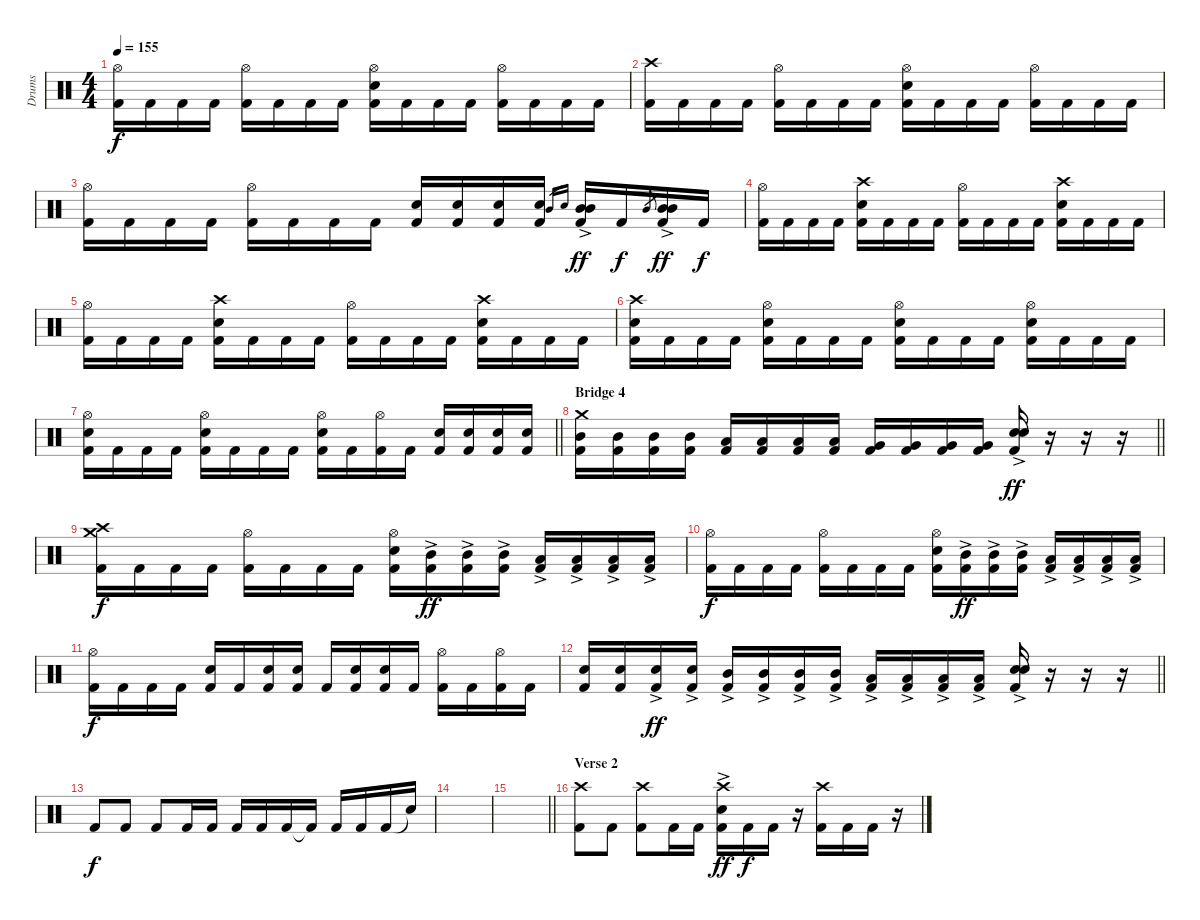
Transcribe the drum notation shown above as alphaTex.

\track ("Drums" "Drums") {instrument percussion}
\staff {score}
\articulation defaults
\ts (4 4)
\tempo 155
\clef neutral
\ks c
("Hi-Hat (open)" "Kick (hit) 2").16{dy f} "Kick (hit) 2".16 "Kick (hit) 2".16 "Kick (hit) 2".16 ("Hi-Hat (open)" "Kick (hit) 2").16 "Kick (hit) 2".16 "Kick (hit) 2".16 "Kick (hit) 2".16 ("Hi-Hat (open)" "Snare (hit) 2" "Kick (hit) 2").16 "Kick (hit) 2".16 "Kick (hit) 2".16 "Kick (hit) 2".16 ("Hi-Hat (open)" "Kick (hit) 2").16 "Kick (hit) 2".16 "Kick (hit) 2".16 "Kick (hit) 2".16 |
("Crash high (hit)" "Kick (hit) 2").16 "Kick (hit) 2".16 "Kick (hit) 2".16 "Kick (hit) 2".16 ("Hi-Hat (open)" "Kick (hit) 2").16 "Kick (hit) 2".16 "Kick (hit) 2".16 "Kick (hit) 2".16 ("Hi-Hat (open)" "Snare (hit) 2" "Kick (hit) 2").16 "Kick (hit) 2".16 "Kick (hit) 2".16 "Kick (hit) 2".16 ("Hi-Hat (open)" "Kick (hit) 2").16 "Kick (hit) 2".16 "Kick (hit) 2".16 "Kick (hit) 2".16 |
("Hi-Hat (open)" "Kick (hit) 2").16 "Kick (hit) 2".16 "Kick (hit) 2".16 "Kick (hit) 2".16 ("Hi-Hat (open)" "Kick (hit) 2").16 "Kick (hit) 2".16 "Kick (hit) 2".16 "Kick (hit) 2".16 ("Snare (hit) 2" "Kick (hit) 2").16 ("Snare (hit) 2" "Kick (hit) 2").16 ("Snare (hit) 2" "Kick (hit) 2").16 ("Snare (hit) 2" "Kick (hit) 2").16 "Mid Tom (hit)".16{gr} "Snare (hit)".16{gr} ("Mid Tom (hit)"{ac} "Mid Tom (hit)" "Kick (hit) 2").16{dy ff} "Kick (hit) 2".16{dy f} "Mid Tom (hit)".8{gr} ("Mid Tom (hit)"{ac} "Mid Tom (hit)" "Kick (hit) 2").16{dy ff} "Kick (hit) 2".16{dy f} |
("Hi-Hat (open)" "Kick (hit) 2").16 "Kick (hit) 2".16 "Kick (hit) 2".16 "Kick (hit) 2".16 ("Crash high (hit)" "Snare (hit) 2" "Kick (hit) 2").16 "Kick (hit) 2".16 "Kick (hit) 2".16 "Kick (hit) 2".16 ("Hi-Hat (open)" "Kick (hit) 2").16 "Kick (hit) 2".16 "Kick (hit) 2".16 "Kick (hit) 2".16 ("Crash high (hit)" "Snare (hit) 2" "Kick (hit) 2").16 "Kick (hit) 2".16 "Kick (hit) 2".16 "Kick (hit) 2".16 |
("Hi-Hat (open)" "Kick (hit) 2").16 "Kick (hit) 2".16 "Kick (hit) 2".16 "Kick (hit) 2".16 ("Crash high (hit)" "Snare (hit) 2" "Kick (hit) 2").16 "Kick (hit) 2".16 "Kick (hit) 2".16 "Kick (hit) 2".16 ("Hi-Hat (open)" "Kick (hit) 2").16 "Kick (hit) 2".16 "Kick (hit) 2".16 "Kick (hit) 2".16 ("Crash high (hit)" "Snare (hit) 2" "Kick (hit) 2").16 "Kick (hit) 2".16 "Kick (hit) 2".16 "Kick (hit) 2".16 |
("Crash high (hit)" "Snare (hit) 2" "Kick (hit) 2").16 "Kick (hit) 2".16 "Kick (hit) 2".16 "Kick (hit) 2".16 ("Hi-Hat (open)" "Snare (hit) 2" "Kick (hit) 2").16 "Kick (hit) 2".16 "Kick (hit) 2".16 "Kick (hit) 2".16 ("Hi-Hat (open)" "Snare (hit) 2" "Kick (hit) 2").16 "Kick (hit) 2".16 "Kick (hit) 2".16 "Kick (hit) 2".16 ("Hi-Hat (open)" "Snare (hit) 2" "Kick (hit) 2").16 "Kick (hit) 2".16 "Kick (hit) 2".16 "Kick (hit) 2".16 |
\barLineRight lightlight
("Hi-Hat (open)" "Snare (hit) 2" "Kick (hit) 2").16 "Kick (hit) 2".16 "Kick (hit) 2".16 "Kick (hit) 2".16 ("Hi-Hat (open)" "Snare (hit) 2" "Kick (hit) 2").16 "Kick (hit) 2".16 "Kick (hit) 2".16 "Kick (hit) 2".16 ("Hi-Hat (open)" "Snare (hit) 2" "Kick (hit) 2").16 "Kick (hit) 2".16 ("Hi-Hat (open)" "Kick (hit) 2").16 "Kick (hit) 2".16 ("Snare (hit) 2" "Kick (hit) 2").16 ("Snare (hit) 2" "Kick (hit) 2").16 ("Snare (hit) 2" "Kick (hit) 2").16 ("Snare (hit) 2" "Kick (hit) 2").16 |
\section ("" "Bridge 4")
\barLineRight lightlight
("Crash medium (hit)" "Mid Tom (hit)" "Kick (hit) 2").16 ("Mid Tom (hit)" "Kick (hit) 2").16 ("Mid Tom (hit)" "Kick (hit) 2").16 ("Mid Tom (hit)" "Kick (hit) 2").16 ("Low Tom (hit)" "Kick (hit) 2").16 ("Low Tom (hit)" "Kick (hit) 2").16 ("Low Tom (hit)" "Kick (hit) 2").16 ("Low Tom (hit)" "Kick (hit) 2").16 ("Very Low Tom (hit)" "Kick (hit) 2").16 ("Very Low Tom (hit)" "Kick (hit) 2").16 ("Very Low Tom (hit)" "Kick (hit) 2").16 ("Very Low Tom (hit)" "Kick (hit) 2").16 ("Snare (hit) 2" "Snare (hit) 2"{ac} "Kick (hit) 2").16{dy ff} r.16 r.16 r.16 |
("Crash high (hit)" "Crash medium (hit)" "Kick (hit) 2").16{dy f} "Kick (hit) 2".16 "Kick (hit) 2".16 "Kick (hit) 2".16 ("Hi-Hat (open)" "Kick (hit) 2").16 "Kick (hit) 2".16 "Kick (hit) 2".16 "Kick (hit) 2".16 ("Hi-Hat (open)" "Snare (hit) 2" "Kick (hit) 2").16 ("Mid Tom (hit)"{ac} "Kick (hit) 2").16{dy ff} ("Mid Tom (hit)"{ac} "Kick (hit) 2").16 ("Mid Tom (hit)"{ac} "Kick (hit) 2").16 ("Low Tom (hit)"{ac} "Kick (hit) 2").16 ("Low Tom (hit)"{ac} "Kick (hit) 2").16 ("Low Tom (hit)"{ac} "Kick (hit) 2").16 ("Low Tom (hit)"{ac} "Kick (hit) 2").16 |
("Hi-Hat (open)" "Kick (hit) 2").16{dy f} "Kick (hit) 2".16 "Kick (hit) 2".16 "Kick (hit) 2".16 ("Hi-Hat (open)" "Kick (hit) 2").16 "Kick (hit) 2".16 "Kick (hit) 2".16 "Kick (hit) 2".16 ("Hi-Hat (open)" "Snare (hit) 2" "Kick (hit) 2").16 ("Mid Tom (hit)"{ac} "Kick (hit) 2").16{dy ff} ("Mid Tom (hit)"{ac} "Kick (hit) 2").16 ("Mid Tom (hit)"{ac} "Kick (hit) 2").16 ("Low Tom (hit)"{ac} "Kick (hit) 2").16 ("Low Tom (hit)"{ac} "Kick (hit) 2").16 ("Low Tom (hit)"{ac} "Kick (hit) 2").16 ("Low Tom (hit)"{ac} "Kick (hit) 2").16 |
("Hi-Hat (open)" "Kick (hit) 2").16{dy f} "Kick (hit) 2".16 "Kick (hit) 2".16 "Kick (hit) 2".16 ("Snare (hit) 2" "Kick (hit) 2").16 "Kick (hit) 2".16 ("Snare (hit) 2" "Kick (hit) 2").16 ("Snare (hit) 2" "Kick (hit) 2").16 "Kick (hit) 2".16 ("Snare (hit) 2" "Kick (hit) 2").16 ("Snare (hit) 2" "Kick (hit) 2").16 "Kick (hit) 2".16 ("Hi-Hat (open)" "Kick (hit) 2").16 "Kick (hit) 2".16 ("Hi-Hat (open)" "Kick (hit) 2").16 "Kick (hit) 2".16 |
\barLineRight lightlight
("Snare (hit) 2" "Kick (hit) 2").16 ("Snare (hit) 2" "Kick (hit) 2").16 ("Snare (hit) 2"{ac} "Kick (hit) 2").16{dy ff} ("Snare (hit) 2"{ac} "Kick (hit) 2").16 ("Mid Tom (hit)"{ac} "Kick (hit) 2").16 ("Mid Tom (hit)"{ac} "Kick (hit) 2").16 ("Mid Tom (hit)"{ac} "Kick (hit) 2").16 ("Mid Tom (hit)"{ac} "Kick (hit) 2").16 ("Low Tom (hit)"{ac} "Kick (hit) 2").16 ("Low Tom (hit)"{ac} "Kick (hit) 2").16 ("Low Tom (hit)"{ac} "Kick (hit) 2").16 ("Low Tom (hit)"{ac} "Kick (hit) 2").16 ("Snare (hit) 2" "Snare (hit) 2"{ac} "Kick (hit) 2").16 r.16 r.16 r.16 |
"Kick (hit) 2".8{dy f} "Kick (hit) 2".8 "Kick (hit) 2".8 "Kick (hit) 2".16 "Kick (hit) 2".16 "Kick (hit) 2".16 "Kick (hit) 2".16 "Kick (hit) 2".16 "Kick (hit) 2"{t}.16 "Kick (hit) 2".16 "Kick (hit) 2".16 "Kick (hit) 2".16 "Snare (hit)"{t}.16 |
|
\barLineRight lightlight
|
\section ("" "Verse 2")
("Crash high (hit)" "Kick (hit) 2").8 "Kick (hit) 2".8 ("Crash high (hit)" "Kick (hit) 2").8 "Kick (hit) 2".16 "Kick (hit) 2".16 ("Crash high (hit)" "Snare (hit) 2"{ac} "Kick (hit) 2").16{dy ff} "Kick (hit) 2".16{dy f} "Kick (hit) 2".16 r.16 ("Crash high (hit)" "Kick (hit) 2").16 "Kick (hit) 2".16 "Kick (hit) 2".16 r.16
